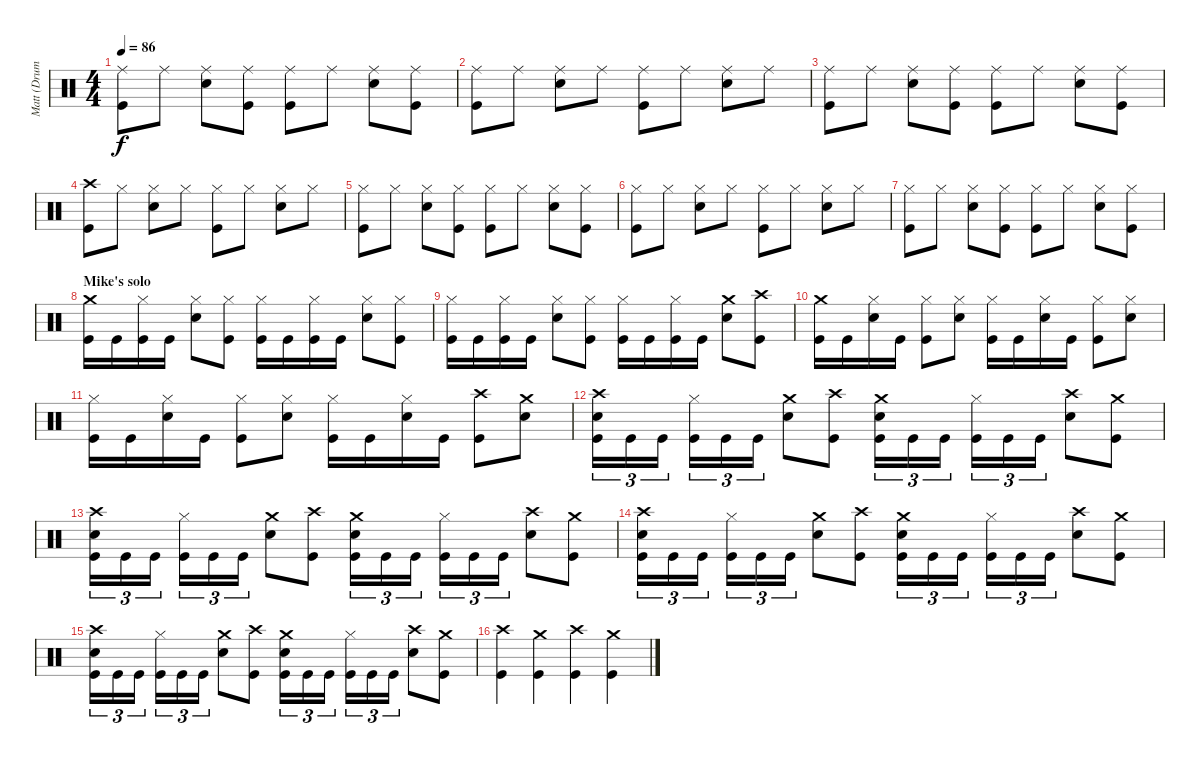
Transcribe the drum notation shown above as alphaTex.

\track ("Matt (Drums)" "Matt (Drum") {instrument percussion}
\staff {score}
\articulation defaults
\ts (4 4)
\tempo 86
\clef neutral
\ks c
("Ride (middle)" "Kick (hit)").8{dy f} "Ride (middle)".8 ("Ride (middle)" "Electric Snare (hit)").8 ("Ride (middle)" "Kick (hit)").8 ("Ride (middle)" "Kick (hit)").8 "Ride (middle)".8 ("Ride (middle)" "Electric Snare (hit)").8 ("Ride (middle)" "Kick (hit)").8 |
("Ride (middle)" "Kick (hit)").8 "Ride (middle)".8 ("Ride (middle)" "Electric Snare (hit)").8 "Ride (middle)".8 ("Ride (middle)" "Kick (hit)").8 "Ride (middle)".8 ("Ride (middle)" "Electric Snare (hit)").8 "Ride (middle)".8 |
("Ride (middle)" "Kick (hit)").8 "Ride (middle)".8 ("Ride (middle)" "Electric Snare (hit)").8 ("Ride (middle)" "Kick (hit)").8 ("Ride (middle)" "Kick (hit)").8 "Ride (middle)".8 ("Ride (middle)" "Electric Snare (hit)").8 ("Ride (middle)" "Kick (hit)").8 |
("Crash high (hit)" "Kick (hit)").8 "Hi-Hat (closed)".8 ("Hi-Hat (closed)" "Electric Snare (hit)").8 "Hi-Hat (closed)".8 ("Hi-Hat (closed)" "Kick (hit)").8 "Hi-Hat (closed)".8 ("Hi-Hat (closed)" "Electric Snare (hit)").8 "Hi-Hat (closed)".8 |
("Hi-Hat (closed)" "Kick (hit)").8 "Hi-Hat (closed)".8 ("Hi-Hat (closed)" "Electric Snare (hit)").8 ("Hi-Hat (closed)" "Kick (hit)").8 ("Hi-Hat (closed)" "Kick (hit)").8 "Hi-Hat (closed)".8 ("Hi-Hat (closed)" "Electric Snare (hit)").8 ("Hi-Hat (closed)" "Kick (hit)").8 |
("Hi-Hat (closed)" "Kick (hit)").8 "Hi-Hat (closed)".8 ("Hi-Hat (closed)" "Electric Snare (hit)").8 "Hi-Hat (closed)".8 ("Hi-Hat (closed)" "Kick (hit)").8 "Hi-Hat (closed)".8 ("Hi-Hat (closed)" "Electric Snare (hit)").8 "Hi-Hat (closed)".8 |
("Hi-Hat (closed)" "Kick (hit)").8 "Hi-Hat (closed)".8 ("Hi-Hat (closed)" "Electric Snare (hit)").8 ("Hi-Hat (closed)" "Kick (hit)").8 ("Hi-Hat (closed)" "Kick (hit)").8 "Hi-Hat (closed)".8 ("Hi-Hat (closed)" "Electric Snare (hit)").8 ("Hi-Hat (closed)" "Kick (hit)").8 |
\section ("" "Mike's solo")
("Crash medium (hit)" "Kick (hit)").16 "Kick (hit)".16 ("Hi-Hat (closed)" "Kick (hit)").16 "Kick (hit)".16 ("Hi-Hat (closed)" "Electric Snare (hit)").8 ("Hi-Hat (closed)" "Kick (hit)").8 ("Hi-Hat (closed)" "Kick (hit)").16 "Kick (hit)".16 ("Hi-Hat (closed)" "Kick (hit)").16 "Kick (hit)".16 ("Hi-Hat (closed)" "Electric Snare (hit)").8 ("Hi-Hat (closed)" "Kick (hit)").8 |
("Hi-Hat (closed)" "Kick (hit)").16 "Kick (hit)".16 ("Hi-Hat (closed)" "Kick (hit)").16 "Kick (hit)".16 ("Hi-Hat (closed)" "Electric Snare (hit)").8 ("Hi-Hat (closed)" "Kick (hit)").8 ("Hi-Hat (closed)" "Kick (hit)").16 "Kick (hit)".16 ("Hi-Hat (closed)" "Kick (hit)").16 "Kick (hit)".16 ("Crash medium (hit)" "Electric Snare (hit)").8 ("Crash high (hit)" "Kick (hit)").8 |
("Crash medium (hit)" "Kick (hit)").16 "Kick (hit)".16 ("Hi-Hat (closed)" "Electric Snare (hit)").16 "Kick (hit)".16 ("Hi-Hat (closed)" "Kick (hit)").8 ("Hi-Hat (closed)" "Electric Snare (hit)").8 ("Hi-Hat (closed)" "Kick (hit)").16 "Kick (hit)".16 ("Hi-Hat (closed)" "Electric Snare (hit)").16 "Kick (hit)".16 ("Hi-Hat (closed)" "Kick (hit)").8 ("Hi-Hat (closed)" "Electric Snare (hit)").8 |
("Hi-Hat (closed)" "Kick (hit)").16 "Kick (hit)".16 ("Hi-Hat (closed)" "Electric Snare (hit)").16 "Kick (hit)".16 ("Hi-Hat (closed)" "Kick (hit)").8 ("Hi-Hat (closed)" "Electric Snare (hit)").8 ("Hi-Hat (closed)" "Kick (hit)").16 "Kick (hit)".16 ("Hi-Hat (closed)" "Electric Snare (hit)").16 "Kick (hit)".16 ("Crash high (hit)" "Kick (hit)").8 ("Crash medium (hit)" "Electric Snare (hit)").8 |
("Crash high (hit)" "Electric Snare (hit)" "Kick (hit)").16{tu (3 2)} "Kick (hit)".16{tu (3 2)} "Kick (hit)".16{tu (3 2)} ("Hi-Hat (closed)" "Kick (hit)").16{tu (3 2)} "Kick (hit)".16{tu (3 2)} "Kick (hit)".16{tu (3 2)} ("Crash medium (hit)" "Electric Snare (hit)").8 ("Crash high (hit)" "Kick (hit)").8 ("Crash medium (hit)" "Electric Snare (hit)" "Kick (hit)").16{tu (3 2)} "Kick (hit)".16{tu (3 2)} "Kick (hit)".16{tu (3 2)} ("Hi-Hat (closed)" "Kick (hit)").16{tu (3 2)} "Kick (hit)".16{tu (3 2)} "Kick (hit)".16{tu (3 2)} ("Crash high (hit)" "Electric Snare (hit)").8 ("Crash medium (hit)" "Kick (hit)").8 |
("Crash high (hit)" "Electric Snare (hit)" "Kick (hit)").16{tu (3 2)} "Kick (hit)".16{tu (3 2)} "Kick (hit)".16{tu (3 2)} ("Hi-Hat (closed)" "Kick (hit)").16{tu (3 2)} "Kick (hit)".16{tu (3 2)} "Kick (hit)".16{tu (3 2)} ("Crash medium (hit)" "Electric Snare (hit)").8 ("Crash high (hit)" "Kick (hit)").8 ("Crash medium (hit)" "Electric Snare (hit)" "Kick (hit)").16{tu (3 2)} "Kick (hit)".16{tu (3 2)} "Kick (hit)".16{tu (3 2)} ("Hi-Hat (closed)" "Kick (hit)").16{tu (3 2)} "Kick (hit)".16{tu (3 2)} "Kick (hit)".16{tu (3 2)} ("Crash high (hit)" "Electric Snare (hit)").8 ("Crash medium (hit)" "Kick (hit)").8 |
("Crash high (hit)" "Electric Snare (hit)" "Kick (hit)").16{tu (3 2)} "Kick (hit)".16{tu (3 2)} "Kick (hit)".16{tu (3 2)} ("Hi-Hat (closed)" "Kick (hit)").16{tu (3 2)} "Kick (hit)".16{tu (3 2)} "Kick (hit)".16{tu (3 2)} ("Crash medium (hit)" "Electric Snare (hit)").8 ("Crash high (hit)" "Kick (hit)").8 ("Crash medium (hit)" "Electric Snare (hit)" "Kick (hit)").16{tu (3 2)} "Kick (hit)".16{tu (3 2)} "Kick (hit)".16{tu (3 2)} ("Hi-Hat (closed)" "Kick (hit)").16{tu (3 2)} "Kick (hit)".16{tu (3 2)} "Kick (hit)".16{tu (3 2)} ("Crash high (hit)" "Electric Snare (hit)").8 ("Crash medium (hit)" "Kick (hit)").8 |
("Crash high (hit)" "Electric Snare (hit)" "Kick (hit)").16{tu (3 2)} "Kick (hit)".16{tu (3 2)} "Kick (hit)".16{tu (3 2)} ("Hi-Hat (closed)" "Kick (hit)").16{tu (3 2)} "Kick (hit)".16{tu (3 2)} "Kick (hit)".16{tu (3 2)} ("Crash medium (hit)" "Electric Snare (hit)").8 ("Crash high (hit)" "Kick (hit)").8 ("Crash medium (hit)" "Electric Snare (hit)" "Kick (hit)").16{tu (3 2)} "Kick (hit)".16{tu (3 2)} "Kick (hit)".16{tu (3 2)} ("Hi-Hat (closed)" "Kick (hit)").16{tu (3 2)} "Kick (hit)".16{tu (3 2)} "Kick (hit)".16{tu (3 2)} ("Crash high (hit)" "Electric Snare (hit)").8 ("Crash medium (hit)" "Kick (hit)").8 |
("Crash high (hit)" "Kick (hit)").4 ("Crash medium (hit)" "Kick (hit)").4 ("Crash high (hit)" "Kick (hit)").4 ("Crash medium (hit)" "Kick (hit)").4
